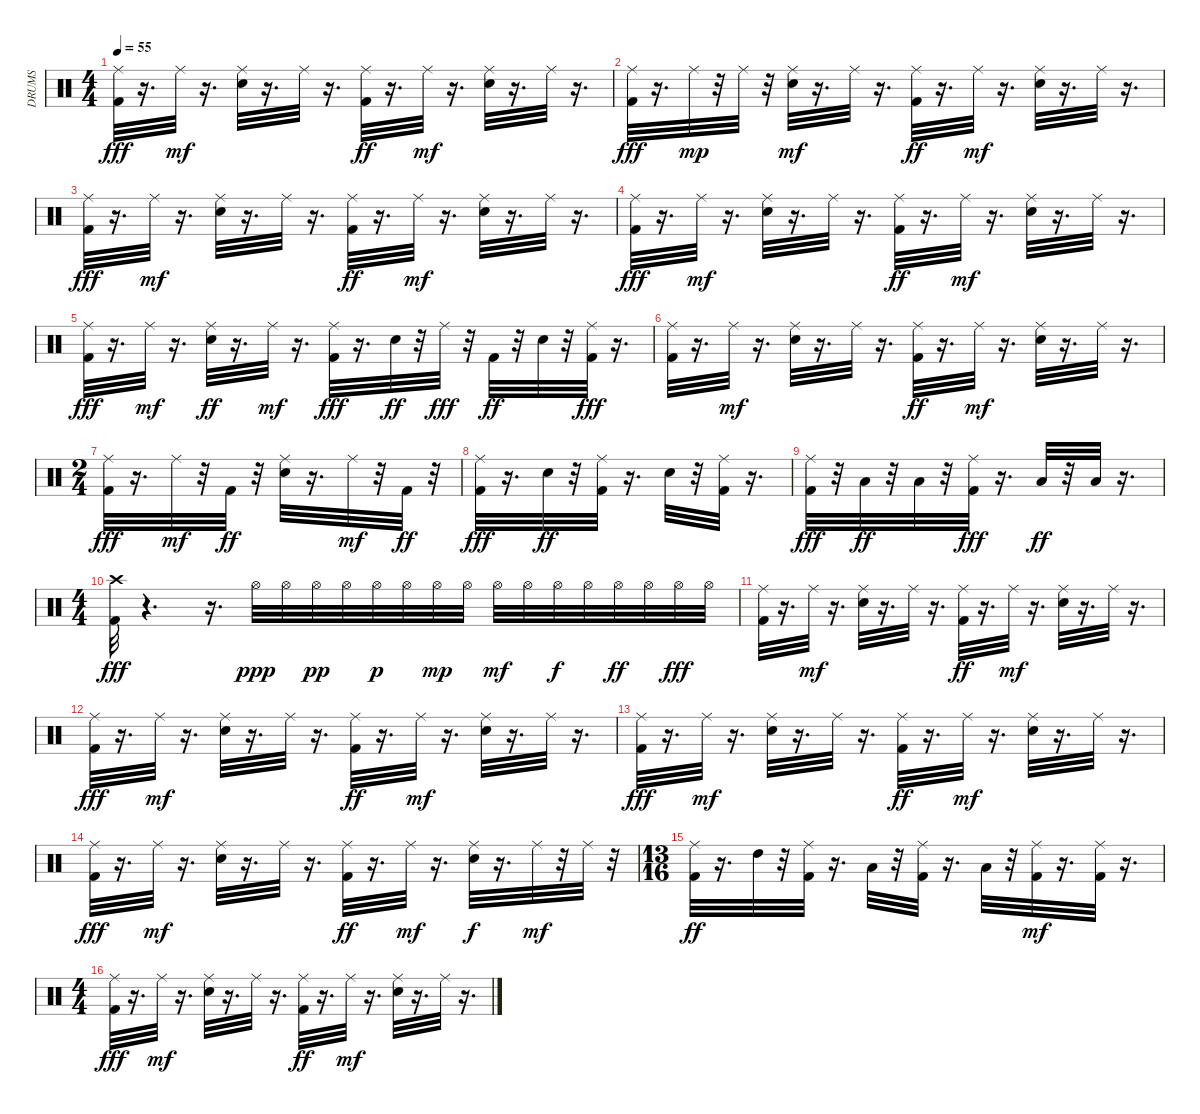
\track ("DRUMS            " "DRUMS     ") {instrument percussion}
\staff {score}
\articulation defaults
\ts (4 4)
\tempo 55
\clef neutral
\ks c
("Ride (middle)" "Kick (hit) 2").32{dy fff} r.16{d} "Ride (middle)".32{dy mf} r.16{d} ("Ride (middle)" "Snare (hit) 2").32 r.16{d} "Ride (middle)".32 r.16{d} ("Ride (middle)" "Kick (hit) 2").32{dy ff} r.16{d} "Ride (middle)".32{dy mf} r.16{d} ("Ride (middle)" "Snare (hit) 2").32 r.16{d} "Ride (middle)".32 r.16{d} |
("Ride (middle)" "Kick (hit) 2").32{dy fff} r.16{d} "Ride (middle)".32{dy mp} r.32 "Ride (middle)".32 r.32 ("Snare (hit) 2" "Ride (middle)").32{dy mf} r.16{d} "Ride (middle)".32 r.16{d} ("Ride (middle)" "Kick (hit) 2").32{dy ff} r.16{d} "Ride (middle)".32{dy mf} r.16{d} ("Snare (hit) 2" "Ride (middle)").32 r.16{d} "Ride (middle)".32 r.16{d} |
("Ride (middle)" "Kick (hit) 2").32{dy fff} r.16{d} "Ride (middle)".32{dy mf} r.16{d} ("Ride (middle)" "Snare (hit) 2").32 r.16{d} "Ride (middle)".32 r.16{d} ("Ride (middle)" "Kick (hit) 2").32{dy ff} r.16{d} "Ride (middle)".32{dy mf} r.16{d} ("Ride (middle)" "Snare (hit) 2").32 r.16{d} "Ride (middle)".32 r.16{d} |
("Ride (middle)" "Kick (hit) 2").32{dy fff} r.16{d} "Ride (middle)".32{dy mf} r.16{d} ("Ride (middle)" "Snare (hit) 2").32 r.16{d} "Ride (middle)".32 r.16{d} ("Ride (middle)" "Kick (hit) 2").32{dy ff} r.16{d} "Ride (middle)".32{dy mf} r.16{d} ("Ride (middle)" "Snare (hit) 2").32 r.16{d} "Ride (middle)".32 r.16{d} |
("Ride (middle)" "Kick (hit) 2").32{dy fff} r.16{d} "Ride (middle)".32{dy mf} r.16{d} ("Ride (middle)" "Snare (hit) 2").32{dy ff} r.16{d} "Ride (middle)".32{dy mf} r.16{d} ("Ride (middle)" "Kick (hit) 2").32{dy fff} r.16{d} "Snare (hit) 2".32{dy ff} r.32 "Ride (middle)".32{dy fff} r.32 "Kick (hit) 2".32{dy ff} r.32 "Snare (hit) 2".32 r.32 ("Ride (middle)" "Kick (hit) 2").32{dy fff} r.16{d} |
("Ride (middle)" "Kick (hit) 2").32 r.16{d} "Ride (middle)".32{dy mf} r.16{d} ("Ride (middle)" "Snare (hit) 2").32 r.16{d} "Ride (middle)".32 r.16{d} ("Ride (middle)" "Kick (hit) 2").32{dy ff} r.16{d} "Ride (middle)".32{dy mf} r.16{d} ("Ride (middle)" "Snare (hit) 2").32 r.16{d} "Ride (middle)".32 r.16{d} |
\ts (2 4)
("Ride (middle)" "Kick (hit) 2").32{dy fff} r.16{d} "Ride (middle)".32{dy mf} r.32 "Kick (hit) 2".32{dy ff} r.32 ("Ride (middle)" "Snare (hit) 2").32 r.16{d} "Ride (middle)".32{dy mf} r.32 "Kick (hit) 2".32{dy ff} r.32 |
("Ride (middle)" "Kick (hit) 2").32{dy fff} r.16{d} "Snare (hit) 2".32{dy ff} r.32 ("Ride (middle)" "Kick (hit) 2").32 r.16{d} "Snare (hit) 2".32 r.32 ("Ride (middle)" "Kick (hit) 2").32 r.16{d} |
("Kick (hit) 2" "Ride (middle)").32{dy fff} r.32 "Low Tom (hit)".32{dy ff} r.32 "Low Floor Tom (hit)".32 r.32 ("Kick (hit) 2" "Ride (middle)").32{dy fff} r.16{d} "Low Floor Tom (hit)".32{dy ff} r.32 "Low Tom (hit)".32 r.16{d} |
\ts (4 4)
("Crash high (hit)" "Kick (hit) 2").32{dy fff} r.4{d} r.16{d} "Hi-Hat (open)".32{dy ppp} "Hi-Hat (open)".32 "Hi-Hat (open)".32{dy pp} "Hi-Hat (open)".32 "Hi-Hat (open)".32{dy p} "Hi-Hat (open)".32 "Hi-Hat (open)".32{dy mp} "Hi-Hat (open)".32 "Hi-Hat (open)".32{dy mf} "Hi-Hat (open)".32 "Hi-Hat (open)".32{dy f} "Hi-Hat (open)".32 "Hi-Hat (open)".32{dy ff} "Hi-Hat (open)".32 "Hi-Hat (open)".32{dy fff} "Hi-Hat (open)".32 |
("Ride (middle)" "Kick (hit) 2").32 r.16{d} "Ride (middle)".32{dy mf} r.16{d} ("Ride (middle)" "Snare (hit) 2").32 r.16{d} "Ride (middle)".32 r.16{d} ("Ride (middle)" "Kick (hit) 2").32{dy ff} r.16{d} "Ride (middle)".32{dy mf} r.16{d} ("Ride (middle)" "Snare (hit) 2").32 r.16{d} "Ride (middle)".32 r.16{d} |
("Ride (middle)" "Kick (hit) 2").32{dy fff} r.16{d} "Ride (middle)".32{dy mf} r.16{d} ("Ride (middle)" "Snare (hit) 2").32 r.16{d} "Ride (middle)".32 r.16{d} ("Ride (middle)" "Kick (hit) 2").32{dy ff} r.16{d} "Ride (middle)".32{dy mf} r.16{d} ("Ride (middle)" "Snare (hit) 2").32 r.16{d} "Ride (middle)".32 r.16{d} |
("Ride (middle)" "Kick (hit) 2").32{dy fff} r.16{d} "Ride (middle)".32{dy mf} r.16{d} ("Ride (middle)" "Snare (hit) 2").32 r.16{d} "Ride (middle)".32 r.16{d} ("Ride (middle)" "Kick (hit) 2").32{dy ff} r.16{d} "Ride (middle)".32{dy mf} r.16{d} ("Ride (middle)" "Snare (hit) 2").32 r.16{d} "Ride (middle)".32 r.16{d} |
("Ride (middle)" "Kick (hit) 2").32{dy fff} r.16{d} "Ride (middle)".32{dy mf} r.16{d} ("Ride (middle)" "Snare (hit) 2").32 r.16{d} "Ride (middle)".32 r.16{d} ("Ride (middle)" "Kick (hit) 2").32{dy ff} r.16{d} "Ride (middle)".32{dy mf} r.16{d} ("Ride (middle)" "Snare (hit) 2").32{dy f} r.16{d} "Ride (middle)".32{dy mf} r.32 "Ride (middle)".32 r.32 |
\ts (13 16)
("Kick (hit) 2" "Ride (middle)").32{dy ff} r.16{d} "High Tom (hit)".32 r.32 ("Kick (hit) 2" "Ride (middle)").32 r.16{d} "Low Tom (hit)".32 r.32 ("Kick (hit) 2" "Ride (middle)").32 r.16{d} "Low Floor Tom (hit)".32 r.32 ("Kick (hit) 2" "Ride (middle)").32{dy mf} r.16{d} ("Kick (hit) 2" "Ride (middle)").32 r.16{d} |
\ts (4 4)
("Ride (middle)" "Kick (hit) 2").32{dy fff} r.16{d} "Ride (middle)".32{dy mf} r.16{d} ("Ride (middle)" "Snare (hit) 2").32 r.16{d} "Ride (middle)".32 r.16{d} ("Ride (middle)" "Kick (hit) 2").32{dy ff} r.16{d} "Ride (middle)".32{dy mf} r.16{d} ("Ride (middle)" "Snare (hit) 2").32 r.16{d} "Ride (middle)".32 r.16{d}
